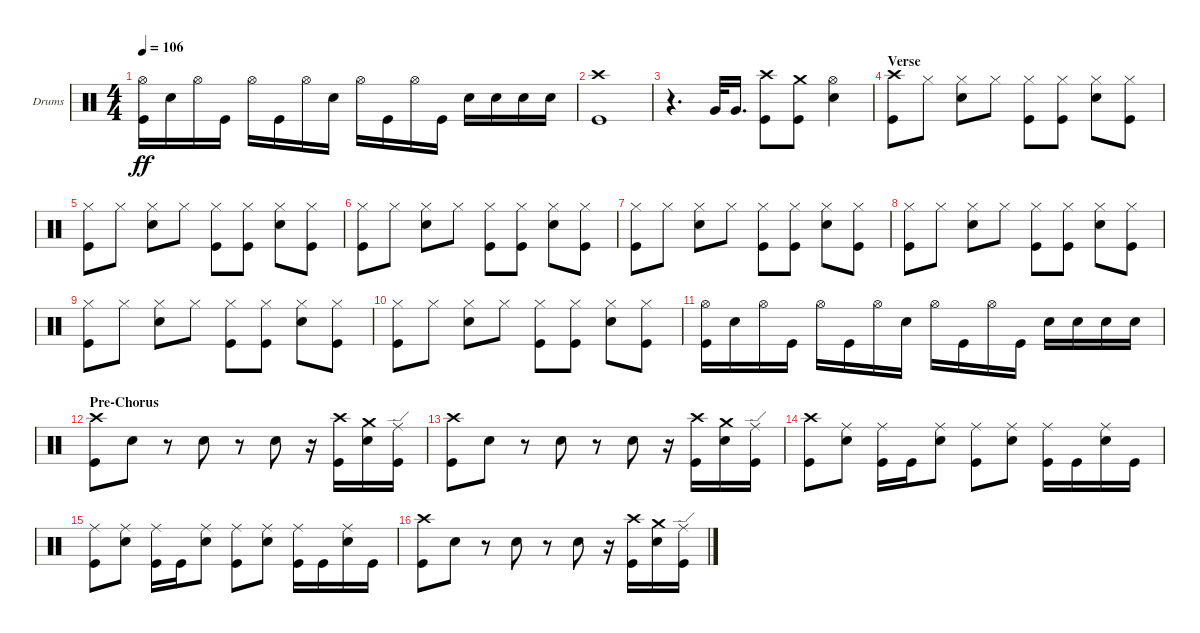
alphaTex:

\defaultSystemsLayout 4
\bracketExtendMode groupsimilarinstruments
\firstSystemTrackNameOrientation horizontal
\otherSystemsTrackNameOrientation horizontal
\track ("Drumkit" "Drums") {instrument percussion}
\staff {score}
\articulation defaults
\ts (4 4)
\tempo 106
\clef neutral
\scale
0.333333
\ks c
("Kick (hit)" "Hi-Hat (open)").16{dy ff} "Snare (hit) 2".16 "Hi-Hat (open)".16 "Kick (hit)".16 "Hi-Hat (open)".16 "Kick (hit)".16 "Hi-Hat (open)".16 "Snare (hit) 2".16 "Hi-Hat (open)".16 "Kick (hit)".16 "Hi-Hat (open)".16 "Kick (hit)".16 "Snare (hit) 2".16 "Snare (hit) 2".16 "Snare (hit) 2".16 "Snare (hit) 2".16 |
\scale
0.333333 ("Kick (hit)" "Crash high (hit)").1 |
\scale
0.333333 r.4{d} "Very Low Tom (hit)".32 "Very Low Tom (hit)".16{d} ("Kick (hit)" "Crash high (hit)").8 ("Kick (hit)" "Crash medium (hit)").8 ("Snare (hit) 2" "Hi-Hat (open)").4 |
\section ("" "Verse")
\scale
0.333333 ("Crash high (hit)" "Kick (hit)").8 "Hi-Hat (closed)".8 ("Snare (hit) 2" "Hi-Hat (closed)").8 "Hi-Hat (closed)".8 ("Kick (hit)" "Hi-Hat (closed)").8 ("Kick (hit)" "Hi-Hat (closed)").8 ("Snare (hit) 2" "Hi-Hat (closed)").8 ("Kick (hit)" "Hi-Hat (closed)").8 |
\scale
0.333333 ("Kick (hit)" "Hi-Hat (closed)").8 "Hi-Hat (closed)".8 ("Snare (hit) 2" "Hi-Hat (closed)").8 "Hi-Hat (closed)".8 ("Kick (hit)" "Hi-Hat (closed)").8 ("Kick (hit)" "Hi-Hat (closed)").8 ("Snare (hit) 2" "Hi-Hat (closed)").8 ("Kick (hit)" "Hi-Hat (closed)").8 |
\scale
0.333333 ("Kick (hit)" "Hi-Hat (closed)").8 "Hi-Hat (closed)".8 ("Snare (hit) 2" "Hi-Hat (closed)").8 "Hi-Hat (closed)".8 ("Kick (hit)" "Hi-Hat (closed)").8 ("Kick (hit)" "Hi-Hat (closed)").8 ("Snare (hit) 2" "Hi-Hat (closed)").8 ("Kick (hit)" "Hi-Hat (closed)").8 |
\scale
0.333333 ("Kick (hit)" "Hi-Hat (closed)").8 "Hi-Hat (closed)".8 ("Snare (hit) 2" "Hi-Hat (closed)").8 "Hi-Hat (closed)".8 ("Kick (hit)" "Hi-Hat (closed)").8 ("Kick (hit)" "Hi-Hat (closed)").8 ("Snare (hit) 2" "Hi-Hat (closed)").8 ("Kick (hit)" "Hi-Hat (closed)").8 |
\scale
0.333333 ("Kick (hit)" "Hi-Hat (closed)").8 "Hi-Hat (closed)".8 ("Snare (hit) 2" "Hi-Hat (closed)").8 "Hi-Hat (closed)".8 ("Kick (hit)" "Hi-Hat (closed)").8 ("Kick (hit)" "Hi-Hat (closed)").8 ("Snare (hit) 2" "Hi-Hat (closed)").8 ("Kick (hit)" "Hi-Hat (closed)").8 |
\scale
0.333333 ("Kick (hit)" "Hi-Hat (closed)").8 "Hi-Hat (closed)".8 ("Snare (hit) 2" "Hi-Hat (closed)").8 "Hi-Hat (closed)".8 ("Kick (hit)" "Hi-Hat (closed)").8 ("Kick (hit)" "Hi-Hat (closed)").8 ("Snare (hit) 2" "Hi-Hat (closed)").8 ("Kick (hit)" "Hi-Hat (closed)").8 |
\scale
0.333333 ("Kick (hit)" "Hi-Hat (closed)").8 "Hi-Hat (closed)".8 ("Snare (hit) 2" "Hi-Hat (closed)").8 "Hi-Hat (closed)".8 ("Kick (hit)" "Hi-Hat (closed)").8 ("Kick (hit)" "Hi-Hat (closed)").8 ("Snare (hit) 2" "Hi-Hat (closed)").8 ("Kick (hit)" "Hi-Hat (closed)").8 |
\scale
0.333333 ("Kick (hit)" "Hi-Hat (open)").16 "Snare (hit) 2".16 "Hi-Hat (open)".16 "Kick (hit)".16 "Hi-Hat (open)".16 "Kick (hit)".16 "Hi-Hat (open)".16 "Snare (hit) 2".16 "Hi-Hat (open)".16 "Kick (hit)".16 "Hi-Hat (open)".16 "Kick (hit)".16 "Snare (hit) 2".16 "Snare (hit) 2".16 "Snare (hit) 2".16 "Snare (hit) 2".16 |
\section ("" "Pre-Chorus")
\scale
0.333333 ("Kick (hit)" "Crash high (hit)").8 "Snare (hit) 2".8 r.8 "Snare (hit) 2".8 r.8 "Snare (hit) 2".8 r.16 ("Kick (hit)" "Crash high (hit)").16 ("Crash medium (hit)" "Snare (hit) 2").16 ("Kick (hit)" "Ride (edge)").16 |
\scale
0.333333 ("Kick (hit)" "Crash high (hit)").8 "Snare (hit) 2".8 r.8 "Snare (hit) 2".8 r.8 "Snare (hit) 2".8 r.16 ("Kick (hit)" "Crash high (hit)").16 ("Crash medium (hit)" "Snare (hit) 2").16 ("Kick (hit)" "Ride (edge)").16 |
\scale
0.333333 ("Kick (hit)" "Crash high (hit)").8 ("Snare (hit) 2" "Ride (middle)").8 ("Kick (hit)" "Ride (middle)").16 "Kick (hit)".16 ("Snare (hit) 2" "Ride (middle)").8 ("Kick (hit)" "Ride (middle)").8 ("Snare (hit) 2" "Ride (middle)").8 ("Kick (hit)" "Ride (middle)").16 "Kick (hit)".16 ("Snare (hit) 2" "Ride (middle)").16 "Kick (hit)".16 |
\scale
0.333333 ("Kick (hit)" "Ride (middle)").8 ("Snare (hit) 2" "Ride (middle)").8 ("Kick (hit)" "Ride (middle)").16 "Kick (hit)".16 ("Snare (hit) 2" "Ride (middle)").8 ("Kick (hit)" "Ride (middle)").8 ("Snare (hit) 2" "Ride (middle)").8 ("Kick (hit)" "Ride (middle)").16 "Kick (hit)".16 ("Snare (hit) 2" "Ride (middle)").16 "Kick (hit)".16 |
\scale
0.333333 ("Kick (hit)" "Crash high (hit)").8 "Snare (hit) 2".8 r.8 "Snare (hit) 2".8 r.8 "Snare (hit) 2".8 r.16 ("Kick (hit)" "Crash high (hit)").16 ("Crash medium (hit)" "Snare (hit) 2").16 ("Kick (hit)" "Ride (edge)").16
